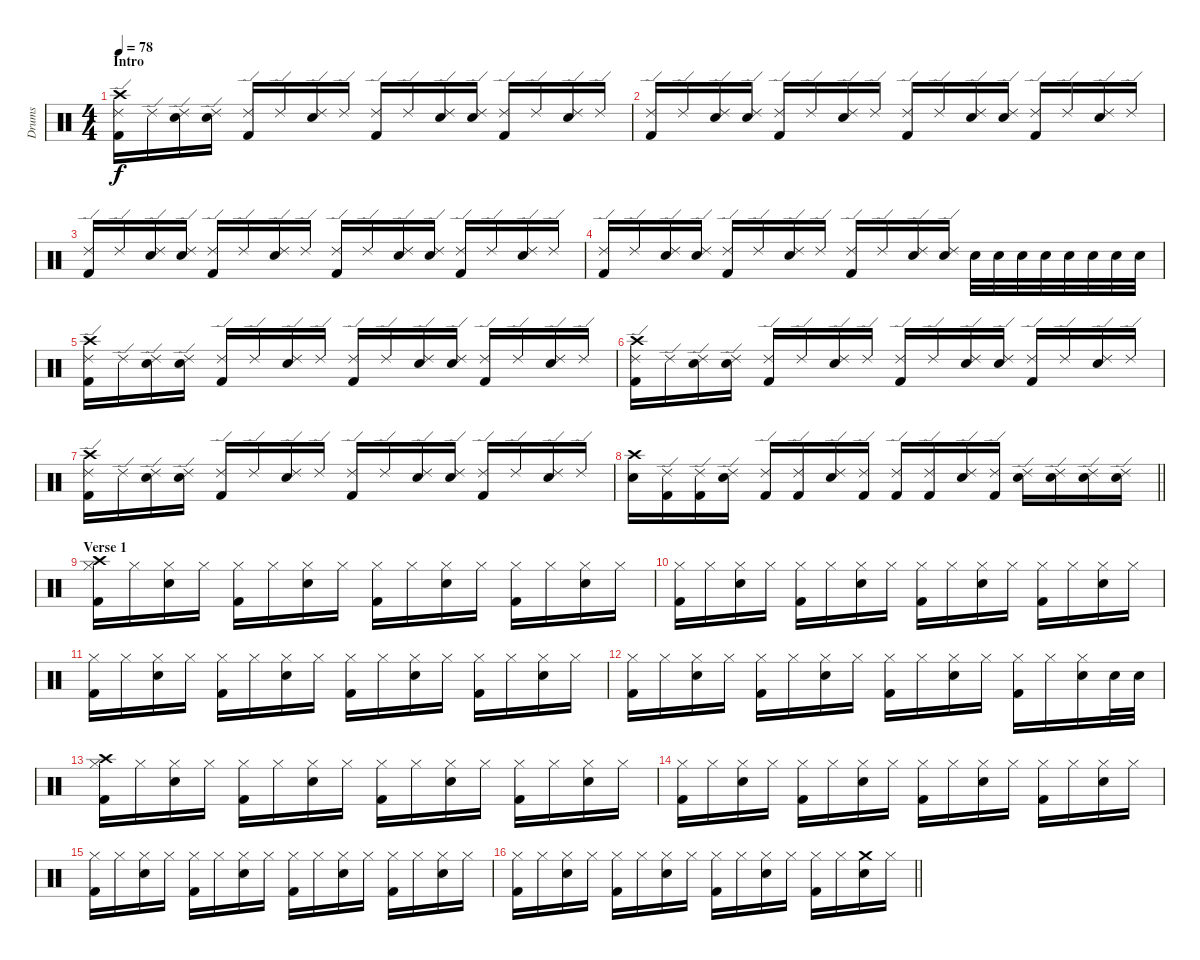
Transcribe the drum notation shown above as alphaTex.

\track ("Drums" "Drums") {instrument percussion}
\staff {score}
\articulation defaults
\ts (4 4)
\section ("" "Intro")
\tempo 78
\clef neutral
\ks c
("Crash high (hit)" "Ride (edge) 2" "Kick (hit) 2").16{dy f} "Ride (edge) 2".16 ("Ride (edge) 2" "Snare (hit) 2").16 ("Ride (edge) 2" "Snare (hit) 2").16 ("Ride (edge) 2" "Kick (hit) 2").16 "Ride (edge) 2".16 ("Ride (edge) 2" "Snare (hit) 2").16 "Ride (edge) 2".16 ("Ride (edge) 2" "Kick (hit) 2").16 "Ride (edge) 2".16 ("Ride (edge) 2" "Snare (hit) 2").16 ("Ride (edge) 2" "Snare (hit) 2").16 ("Ride (edge) 2" "Kick (hit) 2").16 "Ride (edge) 2".16 ("Ride (edge) 2" "Snare (hit) 2").16 "Ride (edge) 2".16 |
("Ride (edge) 2" "Kick (hit) 2").16 "Ride (edge) 2".16 ("Ride (edge) 2" "Snare (hit) 2").16 ("Ride (edge) 2" "Snare (hit) 2").16 ("Ride (edge) 2" "Kick (hit) 2").16 "Ride (edge) 2".16 ("Ride (edge) 2" "Snare (hit) 2").16 "Ride (edge) 2".16 ("Ride (edge) 2" "Kick (hit) 2").16 "Ride (edge) 2".16 ("Ride (edge) 2" "Snare (hit) 2").16 ("Ride (edge) 2" "Snare (hit) 2").16 ("Ride (edge) 2" "Kick (hit) 2").16 "Ride (edge) 2".16 ("Ride (edge) 2" "Snare (hit) 2").16 "Ride (edge) 2".16 |
("Ride (edge) 2" "Kick (hit) 2").16 "Ride (edge) 2".16 ("Ride (edge) 2" "Snare (hit) 2").16 ("Ride (edge) 2" "Snare (hit) 2").16 ("Ride (edge) 2" "Kick (hit) 2").16 "Ride (edge) 2".16 ("Ride (edge) 2" "Snare (hit) 2").16 "Ride (edge) 2".16 ("Ride (edge) 2" "Kick (hit) 2").16 "Ride (edge) 2".16 ("Ride (edge) 2" "Snare (hit) 2").16 ("Ride (edge) 2" "Snare (hit) 2").16 ("Ride (edge) 2" "Kick (hit) 2").16 "Ride (edge) 2".16 ("Ride (edge) 2" "Snare (hit) 2").16 "Ride (edge) 2".16 |
("Ride (edge) 2" "Kick (hit) 2").16 "Ride (edge) 2".16 ("Ride (edge) 2" "Snare (hit) 2").16 ("Ride (edge) 2" "Snare (hit) 2").16 ("Ride (edge) 2" "Kick (hit) 2").16 "Ride (edge) 2".16 ("Ride (edge) 2" "Snare (hit) 2").16 "Ride (edge) 2".16 ("Ride (edge) 2" "Kick (hit) 2").16 "Ride (edge) 2".16 ("Ride (edge) 2" "Snare (hit) 2").16 ("Ride (edge) 2" "Snare (hit) 2").16 "Snare (hit) 2".32 "Snare (hit) 2".32 "Snare (hit) 2".32 "Snare (hit) 2".32 "Snare (hit) 2".32 "Snare (hit) 2".32 "Snare (hit) 2".32 "Snare (hit) 2".32 |
("Crash high (hit)" "Ride (edge) 2" "Kick (hit) 2").16 "Ride (edge) 2".16 ("Ride (edge) 2" "Snare (hit) 2").16 ("Ride (edge) 2" "Snare (hit) 2").16 ("Ride (edge) 2" "Kick (hit) 2").16 "Ride (edge) 2".16 ("Ride (edge) 2" "Snare (hit) 2").16 "Ride (edge) 2".16 ("Ride (edge) 2" "Kick (hit) 2").16 "Ride (edge) 2".16 ("Ride (edge) 2" "Snare (hit) 2").16 ("Ride (edge) 2" "Snare (hit) 2").16 ("Ride (edge) 2" "Kick (hit) 2").16 "Ride (edge) 2".16 ("Ride (edge) 2" "Snare (hit) 2").16 "Ride (edge) 2".16 |
("Crash high (hit)" "Ride (edge) 2" "Kick (hit) 2").16 "Ride (edge) 2".16 ("Ride (edge) 2" "Snare (hit) 2").16 ("Ride (edge) 2" "Snare (hit) 2").16 ("Ride (edge) 2" "Kick (hit) 2").16 "Ride (edge) 2".16 ("Ride (edge) 2" "Snare (hit) 2").16 "Ride (edge) 2".16 ("Ride (edge) 2" "Kick (hit) 2").16 "Ride (edge) 2".16 ("Ride (edge) 2" "Snare (hit) 2").16 ("Ride (edge) 2" "Snare (hit) 2").16 ("Ride (edge) 2" "Kick (hit) 2").16 "Ride (edge) 2".16 ("Ride (edge) 2" "Snare (hit) 2").16 "Ride (edge) 2".16 |
("Crash high (hit)" "Ride (edge) 2" "Kick (hit) 2").16 "Ride (edge) 2".16 ("Ride (edge) 2" "Snare (hit) 2").16 ("Ride (edge) 2" "Snare (hit) 2").16 ("Ride (edge) 2" "Kick (hit) 2").16 "Ride (edge) 2".16 ("Ride (edge) 2" "Snare (hit) 2").16 "Ride (edge) 2".16 ("Ride (edge) 2" "Kick (hit) 2").16 "Ride (edge) 2".16 ("Ride (edge) 2" "Snare (hit) 2").16 ("Ride (edge) 2" "Snare (hit) 2").16 ("Ride (edge) 2" "Kick (hit) 2").16 "Ride (edge) 2".16 ("Ride (edge) 2" "Snare (hit) 2").16 "Ride (edge) 2".16 |
\barLineRight lightlight
("Crash high (hit)" "Snare (hit) 2").16 ("Ride (edge) 2" "Kick (hit) 2").16 ("Ride (edge) 2" "Kick (hit) 2").16 ("Ride (edge) 2" "Snare (hit) 2").16 ("Ride (edge) 2" "Kick (hit) 2").16 ("Ride (edge) 2" "Kick (hit) 2").16 ("Ride (edge) 2" "Snare (hit) 2").16 ("Ride (edge) 2" "Kick (hit) 2").16 ("Ride (edge) 2" "Kick (hit) 2").16 ("Ride (edge) 2" "Kick (hit) 2").16 ("Ride (edge) 2" "Snare (hit) 2").16 ("Ride (edge) 2" "Kick (hit) 2").16 ("Ride (edge) 2" "Snare (hit) 2").16 ("Ride (edge) 2" "Snare (hit) 2").16 ("Ride (edge) 2" "Snare (hit) 2").16 ("Ride (edge) 2" "Snare (hit) 2").16 |
\section ("" "Verse 1")
("Crash high (hit)" "Hi-Hat (closed)" "Kick (hit) 2").16 "Hi-Hat (closed)".16 ("Hi-Hat (closed)" "Snare (hit) 2").16 "Hi-Hat (closed)".16 ("Hi-Hat (closed)" "Kick (hit) 2").16 "Hi-Hat (closed)".16 ("Hi-Hat (closed)" "Snare (hit) 2").16 "Hi-Hat (closed)".16 ("Hi-Hat (closed)" "Kick (hit) 2").16 "Hi-Hat (closed)".16 ("Hi-Hat (closed)" "Snare (hit) 2").16 "Hi-Hat (closed)".16 ("Hi-Hat (closed)" "Kick (hit) 2").16 "Hi-Hat (closed)".16 ("Hi-Hat (closed)" "Snare (hit) 2").16 "Hi-Hat (closed)".16 |
("Hi-Hat (closed)" "Kick (hit) 2").16 "Hi-Hat (closed)".16 ("Hi-Hat (closed)" "Snare (hit) 2").16 "Hi-Hat (closed)".16 ("Hi-Hat (closed)" "Kick (hit) 2").16 "Hi-Hat (closed)".16 ("Hi-Hat (closed)" "Snare (hit) 2").16 "Hi-Hat (closed)".16 ("Hi-Hat (closed)" "Kick (hit) 2").16 "Hi-Hat (closed)".16 ("Hi-Hat (closed)" "Snare (hit) 2").16 "Hi-Hat (closed)".16 ("Hi-Hat (closed)" "Kick (hit) 2").16 "Hi-Hat (closed)".16 ("Hi-Hat (closed)" "Snare (hit) 2").16 "Hi-Hat (closed)".16 |
("Hi-Hat (closed)" "Kick (hit) 2").16 "Hi-Hat (closed)".16 ("Hi-Hat (closed)" "Snare (hit) 2").16 "Hi-Hat (closed)".16 ("Hi-Hat (closed)" "Kick (hit) 2").16 "Hi-Hat (closed)".16 ("Hi-Hat (closed)" "Snare (hit) 2").16 "Hi-Hat (closed)".16 ("Hi-Hat (closed)" "Kick (hit) 2").16 "Hi-Hat (closed)".16 ("Hi-Hat (closed)" "Snare (hit) 2").16 "Hi-Hat (closed)".16 ("Hi-Hat (closed)" "Kick (hit) 2").16 "Hi-Hat (closed)".16 ("Hi-Hat (closed)" "Snare (hit) 2").16 "Hi-Hat (closed)".16 |
("Hi-Hat (closed)" "Kick (hit) 2").16 "Hi-Hat (closed)".16 ("Hi-Hat (closed)" "Snare (hit) 2").16 "Hi-Hat (closed)".16 ("Hi-Hat (closed)" "Kick (hit) 2").16 "Hi-Hat (closed)".16 ("Hi-Hat (closed)" "Snare (hit) 2").16 "Hi-Hat (closed)".16 ("Hi-Hat (closed)" "Kick (hit) 2").16 "Hi-Hat (closed)".16 ("Hi-Hat (closed)" "Snare (hit) 2").16 "Hi-Hat (closed)".16 ("Hi-Hat (closed)" "Kick (hit) 2").16 "Hi-Hat (closed)".16 ("Hi-Hat (closed)" "Snare (hit) 2").16 "Snare (hit) 2".32 "Snare (hit) 2".32 |
("Crash high (hit)" "Hi-Hat (closed)" "Kick (hit) 2").16 "Hi-Hat (closed)".16 ("Hi-Hat (closed)" "Snare (hit) 2").16 "Hi-Hat (closed)".16 ("Hi-Hat (closed)" "Kick (hit) 2").16 "Hi-Hat (closed)".16 ("Hi-Hat (closed)" "Snare (hit) 2").16 "Hi-Hat (closed)".16 ("Hi-Hat (closed)" "Kick (hit) 2").16 "Hi-Hat (closed)".16 ("Hi-Hat (closed)" "Snare (hit) 2").16 "Hi-Hat (closed)".16 ("Hi-Hat (closed)" "Kick (hit) 2").16 "Hi-Hat (closed)".16 ("Hi-Hat (closed)" "Snare (hit) 2").16 "Hi-Hat (closed)".16 |
("Hi-Hat (closed)" "Kick (hit) 2").16 "Hi-Hat (closed)".16 ("Hi-Hat (closed)" "Snare (hit) 2").16 "Hi-Hat (closed)".16 ("Hi-Hat (closed)" "Kick (hit) 2").16 "Hi-Hat (closed)".16 ("Hi-Hat (closed)" "Snare (hit) 2").16 "Hi-Hat (closed)".16 ("Hi-Hat (closed)" "Kick (hit) 2").16 "Hi-Hat (closed)".16 ("Hi-Hat (closed)" "Snare (hit) 2").16 "Hi-Hat (closed)".16 ("Hi-Hat (closed)" "Kick (hit) 2").16 "Hi-Hat (closed)".16 ("Hi-Hat (closed)" "Snare (hit) 2").16 "Hi-Hat (closed)".16 |
("Hi-Hat (closed)" "Kick (hit) 2").16 "Hi-Hat (closed)".16 ("Hi-Hat (closed)" "Snare (hit) 2").16 "Hi-Hat (closed)".16 ("Hi-Hat (closed)" "Kick (hit) 2").16 "Hi-Hat (closed)".16 ("Hi-Hat (closed)" "Snare (hit) 2").16 "Hi-Hat (closed)".16 ("Hi-Hat (closed)" "Kick (hit) 2").16 "Hi-Hat (closed)".16 ("Hi-Hat (closed)" "Snare (hit) 2").16 "Hi-Hat (closed)".16 ("Hi-Hat (closed)" "Kick (hit) 2").16 "Hi-Hat (closed)".16 ("Hi-Hat (closed)" "Snare (hit) 2").16 "Hi-Hat (closed)".16 |
\barLineRight lightlight
("Hi-Hat (closed)" "Kick (hit) 2").16 "Hi-Hat (closed)".16 ("Hi-Hat (closed)" "Snare (hit) 2").16 "Hi-Hat (closed)".16 ("Hi-Hat (closed)" "Kick (hit) 2").16 "Hi-Hat (closed)".16 ("Hi-Hat (closed)" "Snare (hit) 2").16 "Hi-Hat (closed)".16 ("Hi-Hat (closed)" "Kick (hit) 2").16 "Hi-Hat (closed)".16 ("Hi-Hat (closed)" "Snare (hit) 2").16 "Hi-Hat (closed)".16 ("Hi-Hat (closed)" "Kick (hit) 2").16 "Hi-Hat (closed)".16 ("Crash medium (hit)" "Snare (hit) 2").16 "Hi-Hat (closed)".16
